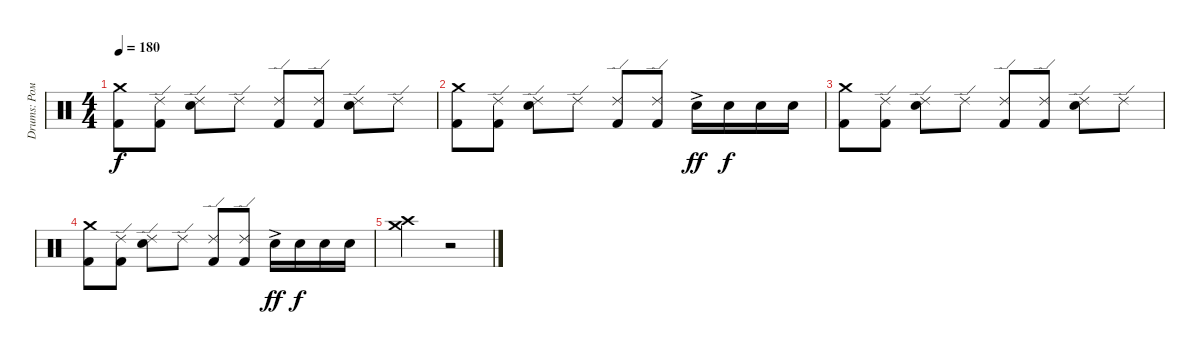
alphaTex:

\track ("Drums: Рома" "Drums: Ром") {instrument percussion}
\staff {score}
\articulation defaults
\ts (4 4)
\tempo 180
\clef neutral
\ks c
("Crash medium (hit)" "Kick (hit) 2").8{dy f} ("Ride (edge) 2" "Kick (hit) 2").8 ("Ride (edge) 2" "Snare (hit) 2").8 "Ride (edge) 2".8 ("Ride (edge) 2" "Kick (hit) 2").8 ("Ride (edge) 2" "Kick (hit) 2").8 ("Ride (edge) 2" "Snare (hit) 2").8 "Ride (edge) 2".8 |
("Crash medium (hit)" "Kick (hit) 2").8 ("Ride (edge) 2" "Kick (hit) 2").8 ("Ride (edge) 2" "Snare (hit) 2").8 "Ride (edge) 2".8 ("Ride (edge) 2" "Kick (hit) 2").8 ("Ride (edge) 2" "Kick (hit) 2").8 "Snare (hit) 2"{ac}.16{dy ff} "Snare (hit) 2".16{dy f} "Snare (hit) 2".16 "Snare (hit) 2".16 |
("Crash medium (hit)" "Kick (hit) 2").8 ("Ride (edge) 2" "Kick (hit) 2").8 ("Ride (edge) 2" "Snare (hit) 2").8 "Ride (edge) 2".8 ("Ride (edge) 2" "Kick (hit) 2").8 ("Ride (edge) 2" "Kick (hit) 2").8 ("Ride (edge) 2" "Snare (hit) 2").8 "Ride (edge) 2".8 |
("Crash medium (hit)" "Kick (hit) 2").8 ("Ride (edge) 2" "Kick (hit) 2").8 ("Ride (edge) 2" "Snare (hit) 2").8 "Ride (edge) 2".8 ("Ride (edge) 2" "Kick (hit) 2").8 ("Ride (edge) 2" "Kick (hit) 2").8 "Snare (hit) 2"{ac}.16{dy ff} "Snare (hit) 2".16{dy f} "Snare (hit) 2".16 "Snare (hit) 2".16 |
("Crash medium (hit)" "Crash high (hit)").2 r.2
